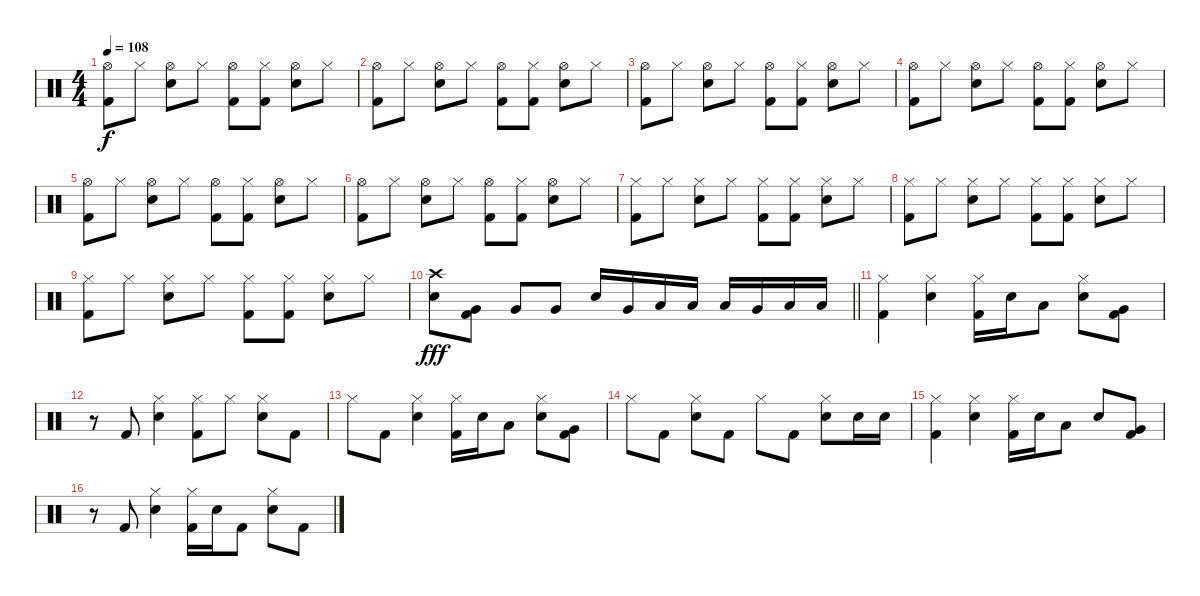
\track "" {instrument percussion}
\staff {score}
\articulation defaults
\ts (4 4)
\tempo 108
\clef neutral
\ks c
("Kick (hit) 2" "Hi-Hat (open)").8{dy f} "Hi-Hat (closed)".8 ("Electric Snare (hit)" "Hi-Hat (open)").8 "Hi-Hat (closed)".8 ("Kick (hit) 2" "Hi-Hat (open)").8 ("Hi-Hat (closed)" "Kick (hit) 2").8 ("Electric Snare (hit)" "Hi-Hat (open)").8 "Hi-Hat (closed)".8 |
("Kick (hit) 2" "Hi-Hat (open)").8 "Hi-Hat (closed)".8 ("Electric Snare (hit)" "Hi-Hat (open)").8 "Hi-Hat (closed)".8 ("Kick (hit) 2" "Hi-Hat (open)").8 ("Hi-Hat (closed)" "Kick (hit) 2").8 ("Electric Snare (hit)" "Hi-Hat (open)").8 "Hi-Hat (closed)".8 |
("Kick (hit) 2" "Hi-Hat (open)").8 "Hi-Hat (closed)".8 ("Electric Snare (hit)" "Hi-Hat (open)").8 "Hi-Hat (closed)".8 ("Kick (hit) 2" "Hi-Hat (open)").8 ("Hi-Hat (closed)" "Kick (hit) 2").8 ("Electric Snare (hit)" "Hi-Hat (open)").8 "Hi-Hat (closed)".8 |
("Kick (hit) 2" "Hi-Hat (open)").8 "Hi-Hat (closed)".8 ("Electric Snare (hit)" "Hi-Hat (open)").8 "Hi-Hat (closed)".8 ("Kick (hit) 2" "Hi-Hat (open)").8 ("Hi-Hat (closed)" "Kick (hit) 2").8 ("Electric Snare (hit)" "Hi-Hat (open)").8 "Hi-Hat (closed)".8 |
("Kick (hit) 2" "Hi-Hat (open)").8 "Hi-Hat (closed)".8 ("Electric Snare (hit)" "Hi-Hat (open)").8 "Hi-Hat (closed)".8 ("Kick (hit) 2" "Hi-Hat (open)").8 ("Hi-Hat (closed)" "Kick (hit) 2").8 ("Electric Snare (hit)" "Hi-Hat (open)").8 "Hi-Hat (closed)".8 |
("Kick (hit) 2" "Hi-Hat (open)").8 "Hi-Hat (closed)".8 ("Electric Snare (hit)" "Hi-Hat (open)").8 "Hi-Hat (closed)".8 ("Kick (hit) 2" "Hi-Hat (open)").8 ("Hi-Hat (closed)" "Kick (hit) 2").8 ("Electric Snare (hit)" "Hi-Hat (open)").8 "Hi-Hat (closed)".8 |
("Kick (hit) 2" "Hi-Hat (closed)").8 "Hi-Hat (closed)".8 ("Electric Snare (hit)" "Hi-Hat (closed)").8 "Hi-Hat (closed)".8 ("Kick (hit) 2" "Hi-Hat (closed)").8 ("Hi-Hat (closed)" "Kick (hit) 2").8 ("Electric Snare (hit)" "Hi-Hat (closed)").8 "Hi-Hat (closed)".8 |
("Kick (hit) 2" "Hi-Hat (closed)").8 "Hi-Hat (closed)".8 ("Electric Snare (hit)" "Hi-Hat (closed)").8 "Hi-Hat (closed)".8 ("Kick (hit) 2" "Hi-Hat (closed)").8 ("Hi-Hat (closed)" "Kick (hit) 2").8 ("Electric Snare (hit)" "Hi-Hat (closed)").8 "Hi-Hat (closed)".8 |
("Kick (hit) 2" "Hi-Hat (closed)").8 "Hi-Hat (closed)".8 ("Electric Snare (hit)" "Hi-Hat (closed)").8 "Hi-Hat (closed)".8 ("Kick (hit) 2" "Hi-Hat (closed)").8 ("Hi-Hat (closed)" "Kick (hit) 2").8 ("Electric Snare (hit)" "Hi-Hat (closed)").8 "Hi-Hat (closed)".8 |
\barLineRight lightlight
("Crash high (hit)" "Electric Snare (hit)").8{dy fff} ("Kick (hit) 2" "Very Low Tom (hit)").8 "Very Low Tom (hit)".8 "Very Low Tom (hit)".8 "Electric Snare (hit)".16 "Very Low Tom (hit)".16 "Low Floor Tom (hit)".16 "Low Floor Tom (hit)".16 "Low Tom (hit)".16 "Very Low Tom (hit)".16 "Low Floor Tom (hit)".16 "Low Floor Tom (hit)".16 |
\section ("" "")
("Hi-Hat (closed)" "Kick (hit) 2").4 ("Hi-Hat (closed)" "Electric Snare (hit)").4 ("Hi-Hat (closed)" "Kick (hit) 2").16 "Electric Snare (hit)".16 "Low Floor Tom (hit)".8 ("Electric Snare (hit)" "Hi-Hat (closed)").8 ("Very Low Tom (hit)" "Kick (hit) 2").8 |
r.8 "Kick (hit) 2".8 ("Electric Snare (hit)" "Hi-Hat (closed)").4 ("Kick (hit) 2" "Hi-Hat (closed)").8 "Hi-Hat (closed)".8 ("Hi-Hat (closed)" "Electric Snare (hit)").8 "Kick (hit) 2".8 |
"Hi-Hat (closed)".8 "Kick (hit) 2".8 ("Electric Snare (hit)" "Hi-Hat (closed)").4 ("Kick (hit) 2" "Hi-Hat (closed)").16 "Electric Snare (hit)".16 "Low Floor Tom (hit)".8 ("Electric Snare (hit)" "Hi-Hat (closed)").8 ("Very Low Tom (hit)" "Kick (hit) 2").8 |
"Hi-Hat (closed)".8 "Kick (hit) 2".8 ("Electric Snare (hit)" "Hi-Hat (closed)").8 "Kick (hit) 2".8 "Hi-Hat (closed)".8 "Kick (hit) 2".8 ("Electric Snare (hit)" "Hi-Hat (closed)").8 "Electric Snare (hit)".16 "Electric Snare (hit)".16 |
("Hi-Hat (closed)" "Kick (hit) 2").4 ("Hi-Hat (closed)" "Electric Snare (hit)").4 ("Kick (hit) 2" "Hi-Hat (closed)").16 "Electric Snare (hit)".16 "Low Floor Tom (hit)".8 "Electric Snare (hit)".8 ("Very Low Tom (hit)" "Kick (hit) 2").8 |
r.8 "Kick (hit) 2".8 ("Electric Snare (hit)" "Hi-Hat (closed)").4 ("Kick (hit) 2" "Hi-Hat (closed)").16 "Electric Snare (hit)".16 "Kick (hit) 2".8 ("Hi-Hat (closed)" "Electric Snare (hit)").8 "Kick (hit) 2".8
